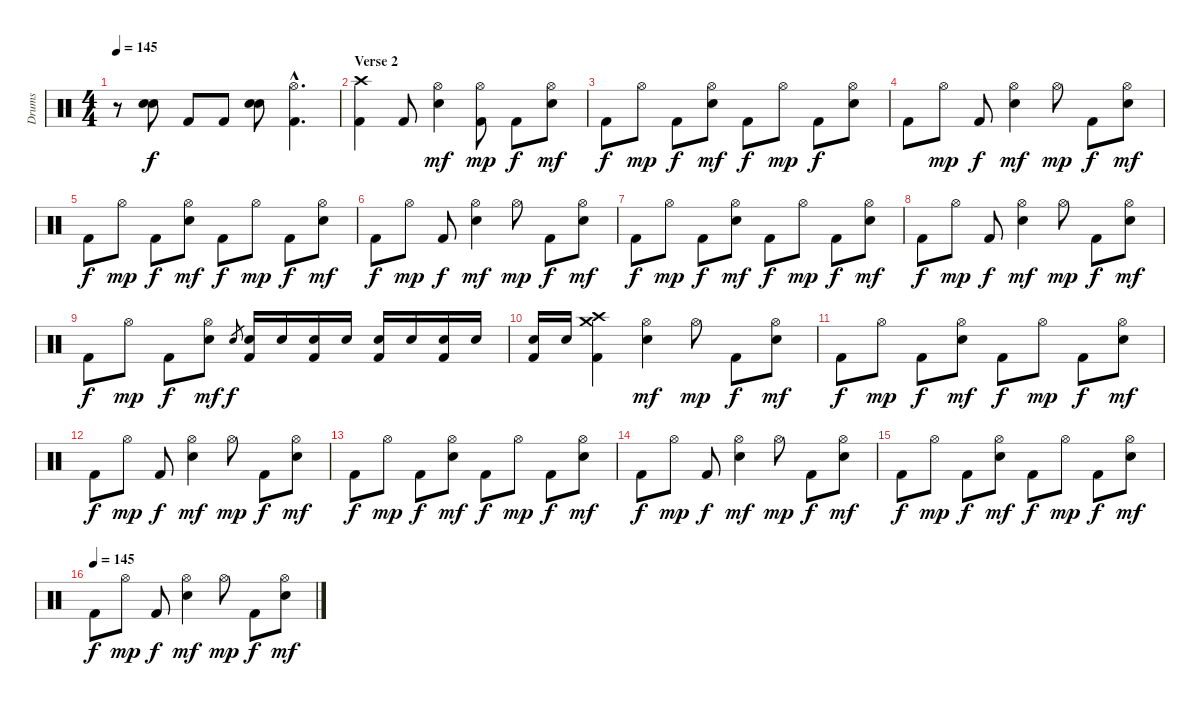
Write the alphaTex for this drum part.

\track ("Drums" "Drums") {instrument percussion}
\staff {score}
\articulation defaults
\ts (4 4)
\tempo 145
\clef neutral
\ks c
r.8{dy ff} ("Snare (hit) 2" "Snare (hit) 2").8{dy f} "Kick (hit) 2".8 "Kick (hit) 2".8 ("Snare (hit) 2" "Snare (hit) 2").8 ("Hi-Hat (open)"{hac} "Kick (hit) 2"{hac}).4{d} |
\section ("" "Verse 2")
("Crash high (hit)" "Kick (hit) 2").4 "Kick (hit) 2".8 ("Hi-Hat (open)" "Snare (hit) 2").4{dy mf} ("Hi-Hat (open)" "Kick (hit) 2").8{dy mp} "Kick (hit) 2".8{dy f} ("Hi-Hat (open)" "Snare (hit) 2").8{dy mf} |
"Kick (hit) 2".8{dy f} "Hi-Hat (open)".8{dy mp} "Kick (hit) 2".8{dy f} ("Hi-Hat (open)" "Snare (hit) 2").8{dy mf} "Kick (hit) 2".8{dy f} "Hi-Hat (open)".8{dy mp} "Kick (hit) 2".8{dy f} ("Hi-Hat (open)" "Snare (hit) 2").8 |
"Kick (hit) 2".8 "Hi-Hat (open)".8{dy mp} "Kick (hit) 2".8{dy f} ("Hi-Hat (open)" "Snare (hit) 2").4{dy mf} "Hi-Hat (open)".8{dy mp} "Kick (hit) 2".8{dy f} ("Hi-Hat (open)" "Snare (hit) 2").8{dy mf} |
"Kick (hit) 2".8{dy f} "Hi-Hat (open)".8{dy mp} "Kick (hit) 2".8{dy f} ("Hi-Hat (open)" "Snare (hit) 2").8{dy mf} "Kick (hit) 2".8{dy f} "Hi-Hat (open)".8{dy mp} "Kick (hit) 2".8{dy f} ("Hi-Hat (open)" "Snare (hit) 2").8{dy mf} |
"Kick (hit) 2".8{dy f} "Hi-Hat (open)".8{dy mp} "Kick (hit) 2".8{dy f} ("Hi-Hat (open)" "Snare (hit) 2").4{dy mf} "Hi-Hat (open)".8{dy mp} "Kick (hit) 2".8{dy f} ("Hi-Hat (open)" "Snare (hit) 2").8{dy mf} |
"Kick (hit) 2".8{dy f} "Hi-Hat (open)".8{dy mp} "Kick (hit) 2".8{dy f} ("Hi-Hat (open)" "Snare (hit) 2").8{dy mf} "Kick (hit) 2".8{dy f} "Hi-Hat (open)".8{dy mp} "Kick (hit) 2".8{dy f} ("Hi-Hat (open)" "Snare (hit) 2").8{dy mf} |
"Kick (hit) 2".8{dy f} "Hi-Hat (open)".8{dy mp} "Kick (hit) 2".8{dy f} ("Hi-Hat (open)" "Snare (hit) 2").4{dy mf} "Hi-Hat (open)".8{dy mp} "Kick (hit) 2".8{dy f} ("Hi-Hat (open)" "Snare (hit) 2").8{dy mf} |
"Kick (hit) 2".8{dy f} "Hi-Hat (open)".8{dy mp} "Kick (hit) 2".8{dy f} ("Hi-Hat (open)" "Snare (hit) 2").8{dy mf} "Snare (hit) 2".8{gr dy f} ("Snare (hit) 2" "Kick (hit) 2").16 "Snare (hit) 2".16 ("Snare (hit) 2" "Kick (hit) 2").16 "Snare (hit) 2".16 ("Snare (hit) 2" "Kick (hit) 2").16 "Snare (hit) 2".16 ("Snare (hit) 2" "Kick (hit) 2").16 "Snare (hit) 2".16 |
("Snare (hit) 2" "Kick (hit) 2").16 "Snare (hit) 2".16 ("Crash medium (hit)" "Crash high (hit)" "Kick (hit) 2").4 ("Hi-Hat (open)" "Snare (hit) 2").4{dy mf} "Hi-Hat (open)".8{dy mp} "Kick (hit) 2".8{dy f} ("Hi-Hat (open)" "Snare (hit) 2").8{dy mf} |
"Kick (hit) 2".8{dy f} "Hi-Hat (open)".8{dy mp} "Kick (hit) 2".8{dy f} ("Hi-Hat (open)" "Snare (hit) 2").8{dy mf} "Kick (hit) 2".8{dy f} "Hi-Hat (open)".8{dy mp} "Kick (hit) 2".8{dy f} ("Hi-Hat (open)" "Snare (hit) 2").8{dy mf} |
"Kick (hit) 2".8{dy f} "Hi-Hat (open)".8{dy mp} "Kick (hit) 2".8{dy f} ("Hi-Hat (open)" "Snare (hit) 2").4{dy mf} "Hi-Hat (open)".8{dy mp} "Kick (hit) 2".8{dy f} ("Hi-Hat (open)" "Snare (hit) 2").8{dy mf} |
"Kick (hit) 2".8{dy f} "Hi-Hat (open)".8{dy mp} "Kick (hit) 2".8{dy f} ("Hi-Hat (open)" "Snare (hit) 2").8{dy mf} "Kick (hit) 2".8{dy f} "Hi-Hat (open)".8{dy mp} "Kick (hit) 2".8{dy f} ("Hi-Hat (open)" "Snare (hit) 2").8{dy mf} |
"Kick (hit) 2".8{dy f} "Hi-Hat (open)".8{dy mp} "Kick (hit) 2".8{dy f} ("Hi-Hat (open)" "Snare (hit) 2").4{dy mf} "Hi-Hat (open)".8{dy mp} "Kick (hit) 2".8{dy f} ("Hi-Hat (open)" "Snare (hit) 2").8{dy mf} |
"Kick (hit) 2".8{dy f} "Hi-Hat (open)".8{dy mp} "Kick (hit) 2".8{dy f} ("Hi-Hat (open)" "Snare (hit) 2").8{dy mf} "Kick (hit) 2".8{dy f} "Hi-Hat (open)".8{dy mp} "Kick (hit) 2".8{dy f} ("Hi-Hat (open)" "Snare (hit) 2").8{dy mf} |
\tempo (145)
"Kick (hit) 2".8{dy f} "Hi-Hat (open)".8{dy mp} "Kick (hit) 2".8{dy f} ("Hi-Hat (open)" "Snare (hit) 2").4{dy mf} "Hi-Hat (open)".8{dy mp} "Kick (hit) 2".8{dy f} ("Hi-Hat (open)" "Snare (hit) 2").8{dy mf}
